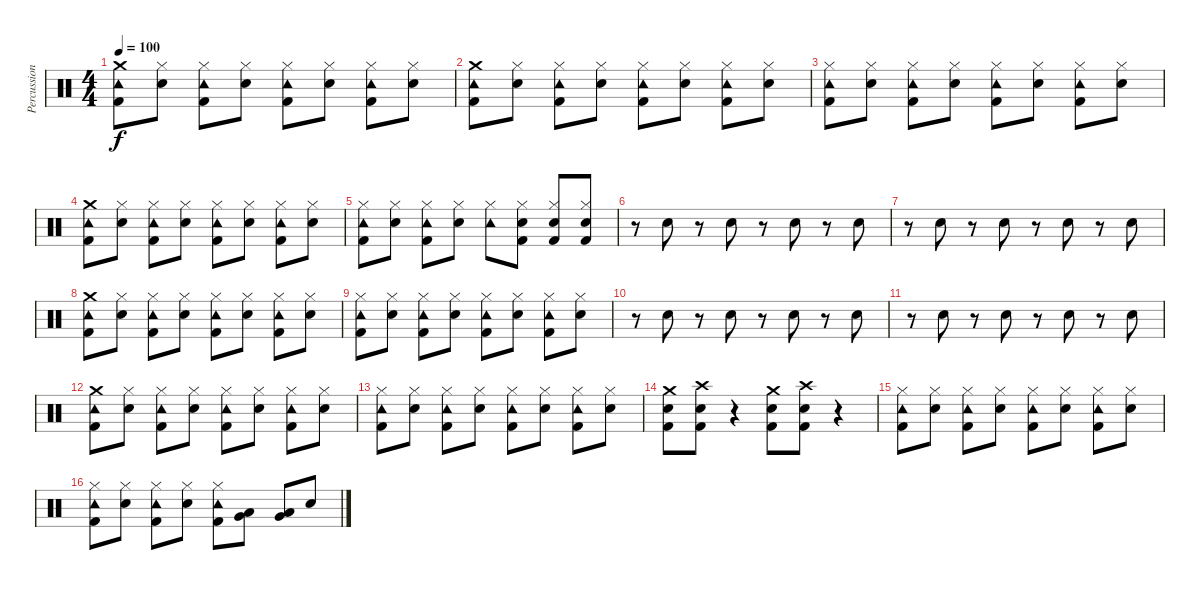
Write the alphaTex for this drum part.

\track ("Percussion" "Percussion") {instrument percussion}
\staff {score}
\articulation defaults
\ts (4 4)
\tempo 100
\clef neutral
\ks c
("Tambourine (hit)" "Crash medium (hit)" "Kick (hit) 2").8{dy f} ("Hi-Hat (closed)" "Electric Snare (hit)").8 ("Hi-Hat (closed)" "Tambourine (hit)" "Kick (hit) 2").8 ("Hi-Hat (closed)" "Electric Snare (hit)").8 ("Hi-Hat (closed)" "Tambourine (hit)" "Kick (hit) 2").8 ("Hi-Hat (closed)" "Electric Snare (hit)").8 ("Hi-Hat (closed)" "Tambourine (hit)" "Kick (hit) 2").8 ("Hi-Hat (closed)" "Electric Snare (hit)").8 |
("Tambourine (hit)" "Crash medium (hit)" "Kick (hit) 2").8 ("Hi-Hat (closed)" "Electric Snare (hit)").8 ("Hi-Hat (closed)" "Tambourine (hit)" "Kick (hit) 2").8 ("Hi-Hat (closed)" "Electric Snare (hit)").8 ("Hi-Hat (closed)" "Tambourine (hit)" "Kick (hit) 2").8 ("Hi-Hat (closed)" "Electric Snare (hit)").8 ("Hi-Hat (closed)" "Tambourine (hit)" "Kick (hit) 2").8 ("Hi-Hat (closed)" "Electric Snare (hit)").8 |
("Hi-Hat (closed)" "Tambourine (hit)" "Kick (hit) 2").8 ("Hi-Hat (closed)" "Electric Snare (hit)").8 ("Hi-Hat (closed)" "Tambourine (hit)" "Kick (hit) 2").8 ("Hi-Hat (closed)" "Electric Snare (hit)").8 ("Hi-Hat (closed)" "Tambourine (hit)" "Kick (hit) 2").8 ("Hi-Hat (closed)" "Electric Snare (hit)").8 ("Hi-Hat (closed)" "Tambourine (hit)" "Kick (hit) 2").8 ("Hi-Hat (closed)" "Electric Snare (hit)").8 |
("Tambourine (hit)" "Crash medium (hit)" "Kick (hit) 2").8 ("Hi-Hat (closed)" "Electric Snare (hit)").8 ("Hi-Hat (closed)" "Tambourine (hit)" "Kick (hit) 2").8 ("Hi-Hat (closed)" "Electric Snare (hit)").8 ("Hi-Hat (closed)" "Tambourine (hit)" "Kick (hit) 2").8 ("Hi-Hat (closed)" "Electric Snare (hit)").8 ("Hi-Hat (closed)" "Tambourine (hit)" "Kick (hit) 2").8 ("Hi-Hat (closed)" "Electric Snare (hit)").8 |
("Hi-Hat (closed)" "Tambourine (hit)" "Kick (hit) 2").8 ("Hi-Hat (closed)" "Electric Snare (hit)").8 ("Hi-Hat (closed)" "Tambourine (hit)" "Kick (hit) 2").8 ("Hi-Hat (closed)" "Electric Snare (hit)").8 ("Hi-Hat (closed)" "Tambourine (hit)").8 ("Hi-Hat (closed)" "Electric Snare (hit)" "Kick (hit) 2").8 ("Hi-Hat (closed)" "Electric Snare (hit)" "Kick (hit) 2").8 ("Hi-Hat (closed)" "Electric Snare (hit)" "Kick (hit) 2").8 |
r.8 "Electric Snare (hit)".8 r.8 "Electric Snare (hit)".8 r.8 "Electric Snare (hit)".8 r.8 "Electric Snare (hit)".8 |
r.8 "Electric Snare (hit)".8 r.8 "Electric Snare (hit)".8 r.8 "Electric Snare (hit)".8 r.8 "Electric Snare (hit)".8 |
("Tambourine (hit)" "Crash medium (hit)" "Kick (hit) 2").8 ("Hi-Hat (closed)" "Electric Snare (hit)").8 ("Hi-Hat (closed)" "Tambourine (hit)" "Kick (hit) 2").8 ("Hi-Hat (closed)" "Electric Snare (hit)").8 ("Hi-Hat (closed)" "Tambourine (hit)" "Kick (hit) 2").8 ("Hi-Hat (closed)" "Electric Snare (hit)").8 ("Hi-Hat (closed)" "Tambourine (hit)" "Kick (hit) 2").8 ("Hi-Hat (closed)" "Electric Snare (hit)").8 |
("Hi-Hat (closed)" "Tambourine (hit)" "Kick (hit) 2").8 ("Hi-Hat (closed)" "Electric Snare (hit)").8 ("Hi-Hat (closed)" "Tambourine (hit)" "Kick (hit) 2").8 ("Hi-Hat (closed)" "Electric Snare (hit)").8 ("Hi-Hat (closed)" "Tambourine (hit)" "Kick (hit) 2").8 ("Hi-Hat (closed)" "Electric Snare (hit)").8 ("Hi-Hat (closed)" "Tambourine (hit)" "Kick (hit) 2").8 ("Hi-Hat (closed)" "Electric Snare (hit)").8 |
r.8 "Electric Snare (hit)".8 r.8 "Electric Snare (hit)".8 r.8 "Electric Snare (hit)".8 r.8 "Electric Snare (hit)".8 |
r.8 "Electric Snare (hit)".8 r.8 "Electric Snare (hit)".8 r.8 "Electric Snare (hit)".8 r.8 "Electric Snare (hit)".8 |
("Tambourine (hit)" "Crash medium (hit)" "Kick (hit) 2").8 ("Hi-Hat (closed)" "Electric Snare (hit)").8 ("Hi-Hat (closed)" "Tambourine (hit)" "Kick (hit) 2").8 ("Hi-Hat (closed)" "Electric Snare (hit)").8 ("Hi-Hat (closed)" "Tambourine (hit)" "Kick (hit) 2").8 ("Hi-Hat (closed)" "Electric Snare (hit)").8 ("Hi-Hat (closed)" "Tambourine (hit)" "Kick (hit) 2").8 ("Hi-Hat (closed)" "Electric Snare (hit)").8 |
("Hi-Hat (closed)" "Tambourine (hit)" "Kick (hit) 2").8 ("Hi-Hat (closed)" "Electric Snare (hit)").8 ("Hi-Hat (closed)" "Tambourine (hit)" "Kick (hit) 2").8 ("Hi-Hat (closed)" "Electric Snare (hit)").8 ("Hi-Hat (closed)" "Tambourine (hit)" "Kick (hit) 2").8 ("Hi-Hat (closed)" "Electric Snare (hit)").8 ("Hi-Hat (closed)" "Tambourine (hit)" "Kick (hit) 2").8 ("Hi-Hat (closed)" "Electric Snare (hit)").8 |
("Electric Snare (hit)" "Crash medium (hit)" "Kick (hit) 2").8 ("Electric Snare (hit)" "Crash high (hit)" "Kick (hit) 2").8 r.4 ("Electric Snare (hit)" "Crash medium (hit)" "Kick (hit) 2").8 ("Electric Snare (hit)" "Crash high (hit)" "Kick (hit) 2").8 r.4 |
("Hi-Hat (closed)" "Tambourine (hit)" "Kick (hit) 2").8 ("Hi-Hat (closed)" "Electric Snare (hit)").8 ("Hi-Hat (closed)" "Tambourine (hit)" "Kick (hit) 2").8 ("Hi-Hat (closed)" "Electric Snare (hit)").8 ("Hi-Hat (closed)" "Tambourine (hit)" "Kick (hit) 2").8 ("Hi-Hat (closed)" "Electric Snare (hit)").8 ("Hi-Hat (closed)" "Tambourine (hit)" "Kick (hit) 2").8 ("Hi-Hat (closed)" "Electric Snare (hit)").8 |
("Hi-Hat (closed)" "Tambourine (hit)" "Kick (hit) 2").8 ("Hi-Hat (closed)" "Electric Snare (hit)").8 ("Hi-Hat (closed)" "Tambourine (hit)" "Kick (hit) 2").8 ("Hi-Hat (closed)" "Electric Snare (hit)").8 ("Hi-Hat (closed)" "Tambourine (hit)" "Kick (hit) 2").8 ("Low Tom (hit)" "Very Low Tom (hit)").8 ("Low Tom (hit)" "Very Low Tom (hit)").8 "Electric Snare (hit)".8
